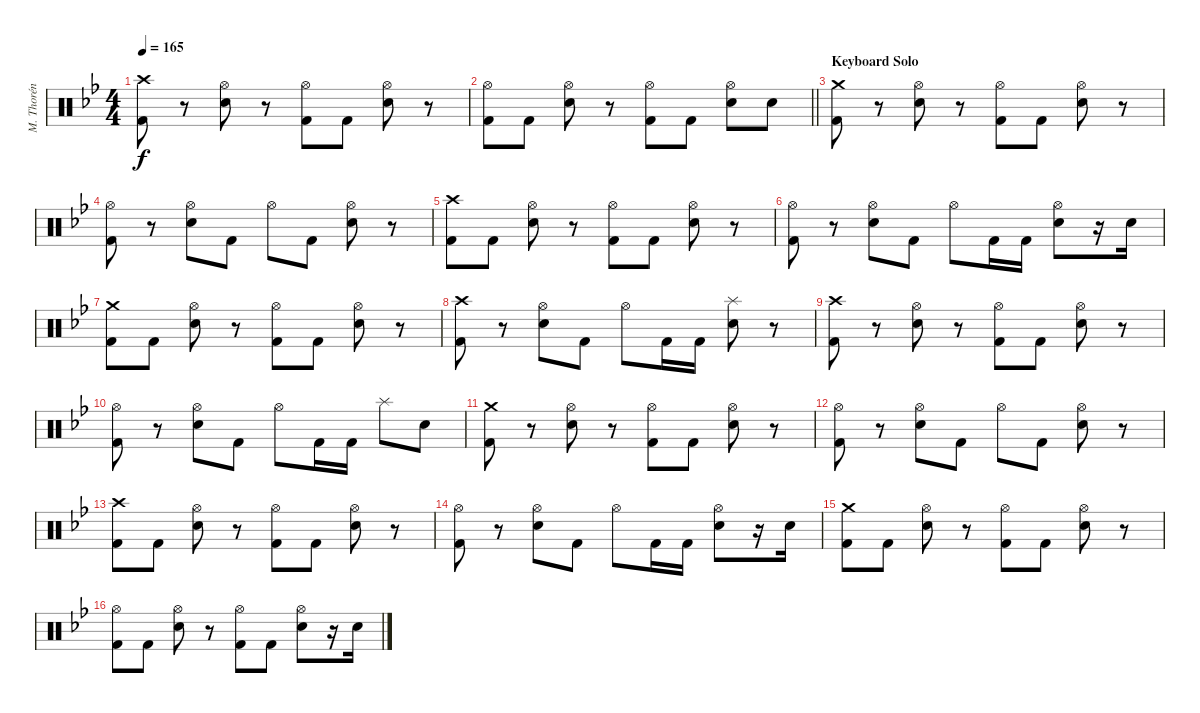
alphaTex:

\track ("M. Thorén (Drums)" "M. Thorén ") {instrument percussion}
\staff {score}
\articulation defaults
\ts (4 4)
\tempo 165
\clef neutral
\ks gminor
("Crash high (hit)" "Kick (hit) 2").8{dy f} r.8 ("Hi-Hat (open)" "Electric Snare (hit)").8 r.8 ("Hi-Hat (open)" "Kick (hit) 2").8 "Kick (hit) 2".8 ("Hi-Hat (open)" "Electric Snare (hit)").8 r.8 |
\barLineRight lightlight
("Hi-Hat (open)" "Kick (hit) 2").8 "Kick (hit) 2".8 ("Hi-Hat (open)" "Electric Snare (hit)").8 r.8 ("Hi-Hat (open)" "Kick (hit) 2").8 "Kick (hit) 2".8 ("Hi-Hat (open)" "Electric Snare (hit)").8 "Electric Snare (hit)".8 |
\section ("" "Keyboard Solo")
("Crash medium (hit)" "Kick (hit) 2").8 r.8 ("Hi-Hat (open)" "Electric Snare (hit)").8 r.8 ("Hi-Hat (open)" "Kick (hit) 2").8 "Kick (hit) 2".8 ("Hi-Hat (open)" "Electric Snare (hit)").8 r.8 |
("Hi-Hat (open)" "Kick (hit) 2").8 r.8 ("Hi-Hat (open)" "Electric Snare (hit)").8 "Kick (hit) 2".8 "Hi-Hat (open)".8 "Kick (hit) 2".8 ("Hi-Hat (open)" "Electric Snare (hit)").8 r.8 |
("Crash high (hit)" "Kick (hit) 2").8 "Kick (hit) 2".8 ("Hi-Hat (open)" "Electric Snare (hit)").8 r.8 ("Hi-Hat (open)" "Kick (hit) 2").8 "Kick (hit) 2".8 ("Hi-Hat (open)" "Electric Snare (hit)").8 r.8 |
("Hi-Hat (open)" "Kick (hit) 2").8 r.8 ("Hi-Hat (open)" "Electric Snare (hit)").8 "Kick (hit) 2".8 "Hi-Hat (open)".8 "Kick (hit) 2".16 "Kick (hit) 2".16 ("Hi-Hat (open)" "Electric Snare (hit)").8 r.16 "Electric Snare (hit)".16 |
("Crash medium (hit)" "Kick (hit) 2").8 "Kick (hit) 2".8 ("Hi-Hat (open)" "Electric Snare (hit)").8 r.8 ("Hi-Hat (open)" "Kick (hit) 2").8 "Kick (hit) 2".8 ("Hi-Hat (open)" "Electric Snare (hit)").8 r.8 |
("Crash high (hit)" "Kick (hit) 2").8 r.8 ("Hi-Hat (open)" "Electric Snare (hit)").8 "Kick (hit) 2".8 "Hi-Hat (open)".8 "Kick (hit) 2".16 "Kick (hit) 2".16 ("Splash (hit)" "Electric Snare (hit)").8 r.8 |
("Crash high (hit)" "Kick (hit) 2").8 r.8 ("Hi-Hat (open)" "Electric Snare (hit)").8 r.8 ("Hi-Hat (open)" "Kick (hit) 2").8 "Kick (hit) 2".8 ("Hi-Hat (open)" "Electric Snare (hit)").8 r.8 |
("Hi-Hat (open)" "Kick (hit) 2").8 r.8 ("Hi-Hat (open)" "Electric Snare (hit)").8 "Kick (hit) 2".8 "Hi-Hat (open)".8 "Kick (hit) 2".16 "Kick (hit) 2".16 "Splash (hit)".8 "Electric Snare (hit)".8 |
("Crash medium (hit)" "Kick (hit) 2").8 r.8 ("Hi-Hat (open)" "Electric Snare (hit)").8 r.8 ("Hi-Hat (open)" "Kick (hit) 2").8 "Kick (hit) 2".8 ("Hi-Hat (open)" "Electric Snare (hit)").8 r.8 |
("Hi-Hat (open)" "Kick (hit) 2").8 r.8 ("Hi-Hat (open)" "Electric Snare (hit)").8 "Kick (hit) 2".8 "Hi-Hat (open)".8 "Kick (hit) 2".8 ("Hi-Hat (open)" "Electric Snare (hit)").8 r.8 |
("Crash high (hit)" "Kick (hit) 2").8 "Kick (hit) 2".8 ("Hi-Hat (open)" "Electric Snare (hit)").8 r.8 ("Hi-Hat (open)" "Kick (hit) 2").8 "Kick (hit) 2".8 ("Hi-Hat (open)" "Electric Snare (hit)").8 r.8 |
("Hi-Hat (open)" "Kick (hit) 2").8 r.8 ("Hi-Hat (open)" "Electric Snare (hit)").8 "Kick (hit) 2".8 "Hi-Hat (open)".8 "Kick (hit) 2".16 "Kick (hit) 2".16 ("Hi-Hat (open)" "Electric Snare (hit)").8 r.16 "Electric Snare (hit)".16 |
("Crash medium (hit)" "Kick (hit) 2").8 "Kick (hit) 2".8 ("Hi-Hat (open)" "Electric Snare (hit)").8 r.8 ("Hi-Hat (open)" "Kick (hit) 2").8 "Kick (hit) 2".8 ("Hi-Hat (open)" "Electric Snare (hit)").8 r.8 |
("Hi-Hat (open)" "Kick (hit) 2").8 "Kick (hit) 2".8 ("Hi-Hat (open)" "Electric Snare (hit)").8 r.8 ("Hi-Hat (open)" "Kick (hit) 2").8 "Kick (hit) 2".8 ("Hi-Hat (open)" "Electric Snare (hit)").8 r.16 "Electric Snare (hit)".16
